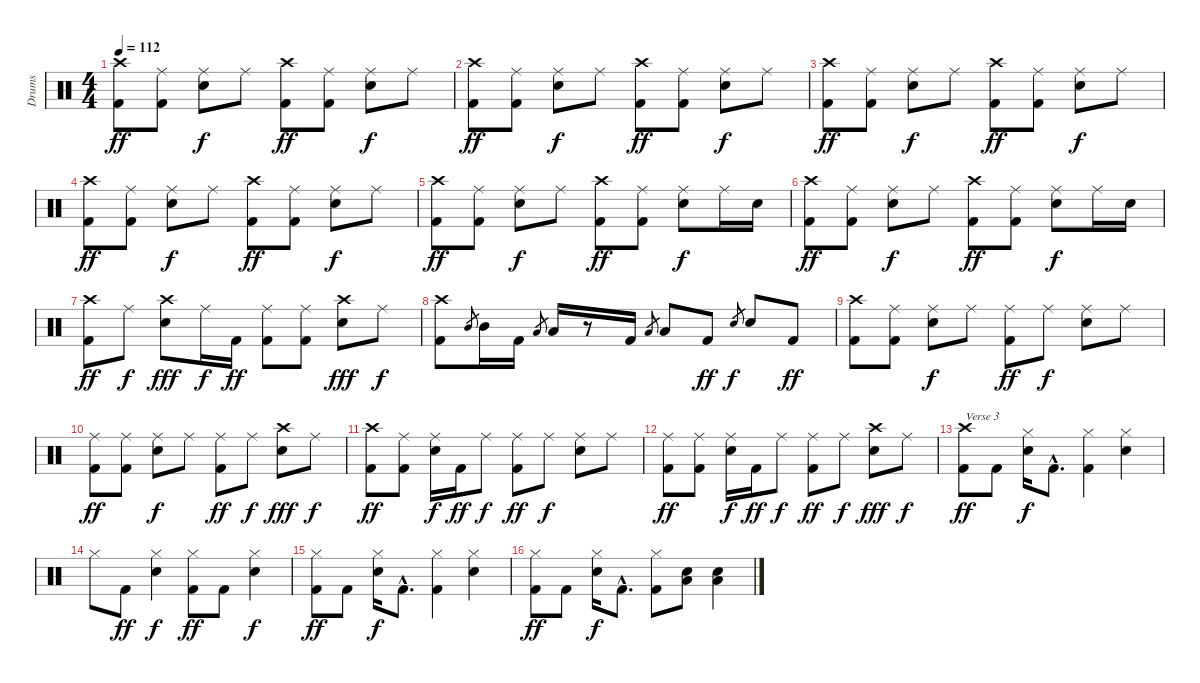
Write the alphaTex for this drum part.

\track ("Drums" "Drums") {instrument percussion}
\staff {score}
\articulation defaults
\ts (4 4)
\tempo 112
\clef neutral
\ks c
("Crash high (hit)" "Kick (hit) 2").8{dy ff} ("Ride (middle)" "Kick (hit) 2").8 ("Ride (middle)" "Snare (hit) 2").8{dy f} "Ride (middle)".8 ("Crash high (hit)" "Kick (hit) 2").8{dy ff} ("Ride (middle)" "Kick (hit) 2").8 ("Ride (middle)" "Snare (hit) 2").8{dy f} "Ride (middle)".8 |
("Crash high (hit)" "Kick (hit) 2").8{dy ff} ("Ride (middle)" "Kick (hit) 2").8 ("Ride (middle)" "Snare (hit) 2").8{dy f} "Ride (middle)".8 ("Crash high (hit)" "Kick (hit) 2").8{dy ff} ("Ride (middle)" "Kick (hit) 2").8 ("Ride (middle)" "Snare (hit) 2").8{dy f} "Ride (middle)".8 |
("Crash high (hit)" "Kick (hit) 2").8{dy ff} ("Ride (middle)" "Kick (hit) 2").8 ("Ride (middle)" "Snare (hit) 2").8{dy f} "Ride (middle)".8 ("Crash high (hit)" "Kick (hit) 2").8{dy ff} ("Ride (middle)" "Kick (hit) 2").8 ("Ride (middle)" "Snare (hit) 2").8{dy f} "Ride (middle)".8 |
("Crash high (hit)" "Kick (hit) 2").8{dy ff} ("Ride (middle)" "Kick (hit) 2").8 ("Ride (middle)" "Snare (hit) 2").8{dy f} "Ride (middle)".8 ("Crash high (hit)" "Kick (hit) 2").8{dy ff} ("Ride (middle)" "Kick (hit) 2").8 ("Ride (middle)" "Snare (hit) 2").8{dy f} "Ride (middle)".8 |
("Crash high (hit)" "Kick (hit) 2").8{dy ff} ("Ride (middle)" "Kick (hit) 2").8 ("Ride (middle)" "Snare (hit) 2").8{dy f} "Ride (middle)".8 ("Crash high (hit)" "Kick (hit) 2").8{dy ff} ("Ride (middle)" "Kick (hit) 2").8 ("Ride (middle)" "Snare (hit) 2").8{dy f} "Ride (middle)".16 "Snare (hit) 2".16 |
("Crash high (hit)" "Kick (hit) 2").8{dy ff} ("Ride (middle)" "Kick (hit) 2").8 ("Ride (middle)" "Snare (hit) 2").8{dy f} "Ride (middle)".8 ("Crash high (hit)" "Kick (hit) 2").8{dy ff} ("Ride (middle)" "Kick (hit) 2").8 ("Ride (middle)" "Snare (hit) 2").8{dy f} "Ride (middle)".16 "Snare (hit) 2".16 |
("Crash high (hit)" "Kick (hit) 2").8{dy ff} "Ride (middle)".8{dy f} ("Crash high (hit)" "Snare (hit) 2").8{dy fff} "Ride (middle)".16{dy f} "Kick (hit) 2".16{dy ff} ("Ride (middle)" "Kick (hit) 2").8 ("Ride (middle)" "Kick (hit) 2").8 ("Crash high (hit)" "Snare (hit) 2").8{dy fff} "Ride (middle)".8{dy f} |
("Crash high (hit)" "Kick (hit) 2").8 "Mid Tom (hit)".8{gr} "Mid Tom (hit)".16 "Kick (hit) 2".16 "Low Tom (hit)".8{gr} "Low Tom (hit)".16 r.8 "Kick (hit) 2".16 "Low Tom (hit)".8{gr} "Low Tom (hit)".8 "Kick (hit) 2".8{dy ff} "Snare (hit) 2".8{gr dy f} "Snare (hit) 2".8 "Kick (hit) 2".8{dy ff} |
("Crash high (hit)" "Kick (hit) 2").8 ("Ride (middle)" "Kick (hit) 2").8 ("Ride (middle)" "Snare (hit) 2").8{dy f} "Ride (middle)".8 ("Ride (middle)" "Kick (hit) 2").8{dy ff} "Ride (middle)".8{dy f} ("Ride (middle)" "Snare (hit) 2").8 "Ride (middle)".8 |
("Ride (middle)" "Kick (hit) 2").8{dy ff} ("Ride (middle)" "Kick (hit) 2").8 ("Ride (middle)" "Snare (hit) 2").8{dy f} "Ride (middle)".8 ("Ride (middle)" "Kick (hit) 2").8{dy ff} "Ride (middle)".8{dy f} ("Crash high (hit)" "Snare (hit) 2").8{dy fff} "Ride (middle)".8{dy f} |
("Crash high (hit)" "Kick (hit) 2").8{dy ff} ("Ride (middle)" "Kick (hit) 2").8 ("Ride (middle)" "Snare (hit) 2").16{dy f} "Kick (hit) 2".16{dy ff} "Ride (middle)".8{dy f} ("Ride (middle)" "Kick (hit) 2").8{dy ff} "Ride (middle)".8{dy f} ("Ride (middle)" "Snare (hit) 2").8 "Ride (middle)".8 |
("Ride (middle)" "Kick (hit) 2").8{dy ff} ("Ride (middle)" "Kick (hit) 2").8 ("Ride (middle)" "Snare (hit) 2").16{dy f} "Kick (hit) 2".16{dy ff} "Ride (middle)".8{dy f} ("Ride (middle)" "Kick (hit) 2").8{dy ff} "Ride (middle)".8{dy f} ("Crash high (hit)" "Snare (hit) 2").8{dy fff} "Ride (middle)".8{dy f} |
("Crash high (hit)" "Kick (hit) 2").8{txt "Verse 3" dy ff} "Kick (hit) 2".8 ("Hi-Hat (closed)" "Snare (hit) 2").16{dy f} "Kick (hit) 2"{hac}.8{d} ("Hi-Hat (closed)" "Kick (hit) 2").4 ("Hi-Hat (closed)" "Snare (hit) 2").4 |
"Hi-Hat (closed)".8 "Kick (hit) 2".8{dy ff} ("Hi-Hat (closed)" "Snare (hit) 2").4{dy f} ("Hi-Hat (closed)" "Kick (hit) 2").8{dy ff} "Kick (hit) 2".8 ("Hi-Hat (closed)" "Snare (hit) 2").4{dy f} |
("Hi-Hat (closed)" "Kick (hit) 2").8{dy ff} "Kick (hit) 2".8 ("Hi-Hat (closed)" "Snare (hit) 2").16{dy f} "Kick (hit) 2"{hac}.8{d} ("Hi-Hat (closed)" "Kick (hit) 2").4 ("Hi-Hat (closed)" "Snare (hit) 2").4 |
("Hi-Hat (closed)" "Kick (hit) 2").8{dy ff} "Kick (hit) 2".8 ("Hi-Hat (closed)" "Snare (hit) 2").16{dy f} "Kick (hit) 2"{hac}.8{d} ("Hi-Hat (closed)" "Kick (hit) 2").8 ("Snare (hit) 2" "Low Floor Tom (hit)").8 ("Snare (hit) 2" "Low Floor Tom (hit)").4
